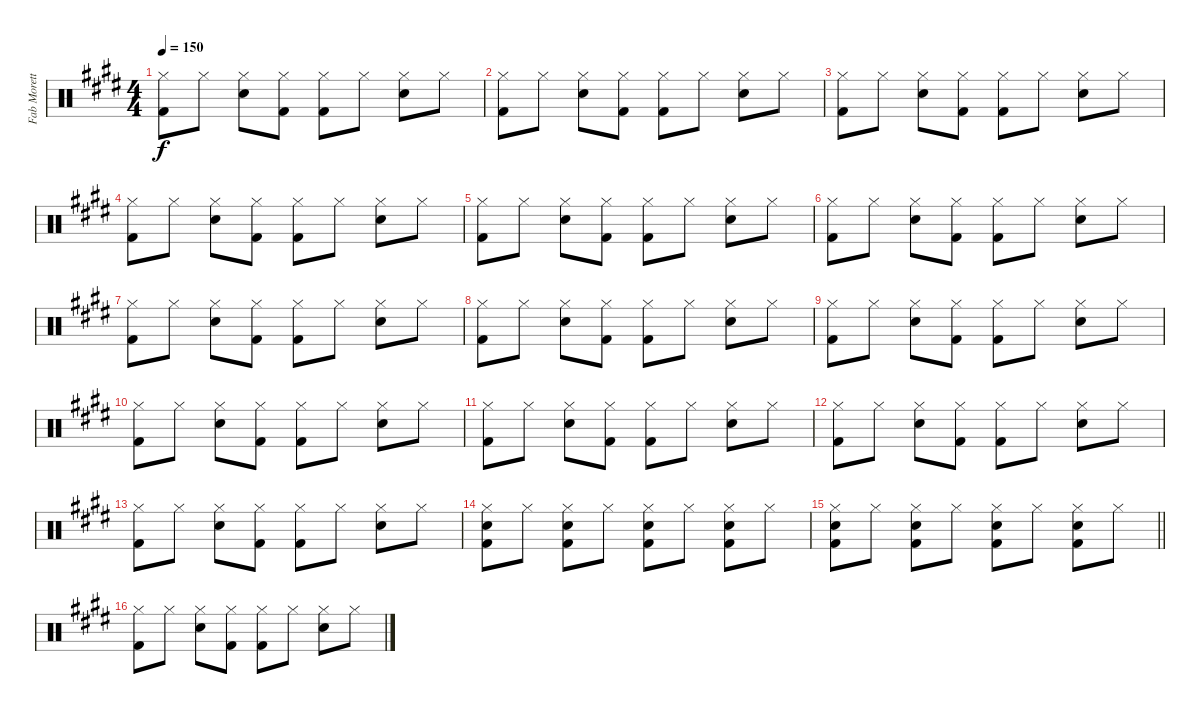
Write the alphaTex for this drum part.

\track ("Fab Moretti - Drums" "Fab Morett") {instrument percussion}
\staff {score}
\articulation defaults
\ts (4 4)
\tempo 150
\clef neutral
\ks e
("Hi-Hat (closed)" "Kick (hit) 2").8{dy f} "Hi-Hat (closed)".8 ("Hi-Hat (closed)" "Snare (hit) 2").8 ("Hi-Hat (closed)" "Kick (hit) 2").8 ("Hi-Hat (closed)" "Kick (hit) 2").8 "Hi-Hat (closed)".8 ("Hi-Hat (closed)" "Snare (hit) 2").8 "Hi-Hat (closed)".8 |
("Hi-Hat (closed)" "Kick (hit) 2").8 "Hi-Hat (closed)".8 ("Hi-Hat (closed)" "Snare (hit) 2").8 ("Hi-Hat (closed)" "Kick (hit) 2").8 ("Hi-Hat (closed)" "Kick (hit) 2").8 "Hi-Hat (closed)".8 ("Hi-Hat (closed)" "Snare (hit) 2").8 "Hi-Hat (closed)".8 |
("Hi-Hat (closed)" "Kick (hit) 2").8 "Hi-Hat (closed)".8 ("Hi-Hat (closed)" "Snare (hit) 2").8 ("Hi-Hat (closed)" "Kick (hit) 2").8 ("Hi-Hat (closed)" "Kick (hit) 2").8 "Hi-Hat (closed)".8 ("Hi-Hat (closed)" "Snare (hit) 2").8 "Hi-Hat (closed)".8 |
("Hi-Hat (closed)" "Kick (hit) 2").8 "Hi-Hat (closed)".8 ("Hi-Hat (closed)" "Snare (hit) 2").8 ("Hi-Hat (closed)" "Kick (hit) 2").8 ("Hi-Hat (closed)" "Kick (hit) 2").8 "Hi-Hat (closed)".8 ("Hi-Hat (closed)" "Snare (hit) 2").8 "Hi-Hat (closed)".8 |
("Hi-Hat (closed)" "Kick (hit) 2").8 "Hi-Hat (closed)".8 ("Hi-Hat (closed)" "Snare (hit) 2").8 ("Hi-Hat (closed)" "Kick (hit) 2").8 ("Hi-Hat (closed)" "Kick (hit) 2").8 "Hi-Hat (closed)".8 ("Hi-Hat (closed)" "Snare (hit) 2").8 "Hi-Hat (closed)".8 |
("Hi-Hat (closed)" "Kick (hit) 2").8 "Hi-Hat (closed)".8 ("Hi-Hat (closed)" "Snare (hit) 2").8 ("Hi-Hat (closed)" "Kick (hit) 2").8 ("Hi-Hat (closed)" "Kick (hit) 2").8 "Hi-Hat (closed)".8 ("Hi-Hat (closed)" "Snare (hit) 2").8 "Hi-Hat (closed)".8 |
("Hi-Hat (closed)" "Kick (hit) 2").8 "Hi-Hat (closed)".8 ("Hi-Hat (closed)" "Snare (hit) 2").8 ("Hi-Hat (closed)" "Kick (hit) 2").8 ("Hi-Hat (closed)" "Kick (hit) 2").8 "Hi-Hat (closed)".8 ("Hi-Hat (closed)" "Snare (hit) 2").8 "Hi-Hat (closed)".8 |
("Hi-Hat (closed)" "Kick (hit) 2").8 "Hi-Hat (closed)".8 ("Hi-Hat (closed)" "Snare (hit) 2").8 ("Hi-Hat (closed)" "Kick (hit) 2").8 ("Hi-Hat (closed)" "Kick (hit) 2").8 "Hi-Hat (closed)".8 ("Hi-Hat (closed)" "Snare (hit) 2").8 "Hi-Hat (closed)".8 |
("Hi-Hat (closed)" "Kick (hit) 2").8 "Hi-Hat (closed)".8 ("Hi-Hat (closed)" "Snare (hit) 2").8 ("Hi-Hat (closed)" "Kick (hit) 2").8 ("Hi-Hat (closed)" "Kick (hit) 2").8 "Hi-Hat (closed)".8 ("Hi-Hat (closed)" "Snare (hit) 2").8 "Hi-Hat (closed)".8 |
("Hi-Hat (closed)" "Kick (hit) 2").8 "Hi-Hat (closed)".8 ("Hi-Hat (closed)" "Snare (hit) 2").8 ("Hi-Hat (closed)" "Kick (hit) 2").8 ("Hi-Hat (closed)" "Kick (hit) 2").8 "Hi-Hat (closed)".8 ("Hi-Hat (closed)" "Snare (hit) 2").8 "Hi-Hat (closed)".8 |
("Hi-Hat (closed)" "Kick (hit) 2").8 "Hi-Hat (closed)".8 ("Hi-Hat (closed)" "Snare (hit) 2").8 ("Hi-Hat (closed)" "Kick (hit) 2").8 ("Hi-Hat (closed)" "Kick (hit) 2").8 "Hi-Hat (closed)".8 ("Hi-Hat (closed)" "Snare (hit) 2").8 "Hi-Hat (closed)".8 |
("Hi-Hat (closed)" "Kick (hit) 2").8 "Hi-Hat (closed)".8 ("Hi-Hat (closed)" "Snare (hit) 2").8 ("Hi-Hat (closed)" "Kick (hit) 2").8 ("Hi-Hat (closed)" "Kick (hit) 2").8 "Hi-Hat (closed)".8 ("Hi-Hat (closed)" "Snare (hit) 2").8 "Hi-Hat (closed)".8 |
("Hi-Hat (closed)" "Kick (hit) 2").8 "Hi-Hat (closed)".8 ("Hi-Hat (closed)" "Snare (hit) 2").8 ("Hi-Hat (closed)" "Kick (hit) 2").8 ("Hi-Hat (closed)" "Kick (hit) 2").8 "Hi-Hat (closed)".8 ("Hi-Hat (closed)" "Snare (hit) 2").8 "Hi-Hat (closed)".8 |
("Hi-Hat (closed)" "Snare (hit) 2" "Kick (hit) 2").8 "Hi-Hat (closed)".8 ("Hi-Hat (closed)" "Snare (hit) 2" "Kick (hit) 2").8 "Hi-Hat (closed)".8 ("Hi-Hat (closed)" "Snare (hit) 2" "Kick (hit) 2").8 "Hi-Hat (closed)".8 ("Hi-Hat (closed)" "Snare (hit) 2" "Kick (hit) 2").8 "Hi-Hat (closed)".8 |
\barLineRight lightlight
("Hi-Hat (closed)" "Snare (hit) 2" "Kick (hit) 2").8 "Hi-Hat (closed)".8 ("Hi-Hat (closed)" "Snare (hit) 2" "Kick (hit) 2").8 "Hi-Hat (closed)".8 ("Hi-Hat (closed)" "Snare (hit) 2" "Kick (hit) 2").8 "Hi-Hat (closed)".8 ("Hi-Hat (closed)" "Snare (hit) 2" "Kick (hit) 2").8 "Hi-Hat (closed)".8 |
("Hi-Hat (closed)" "Kick (hit) 2").8 "Hi-Hat (closed)".8 ("Hi-Hat (closed)" "Snare (hit) 2").8 ("Hi-Hat (closed)" "Kick (hit) 2").8 ("Hi-Hat (closed)" "Kick (hit) 2").8 "Hi-Hat (closed)".8 ("Hi-Hat (closed)" "Snare (hit) 2").8 "Hi-Hat (closed)".8
